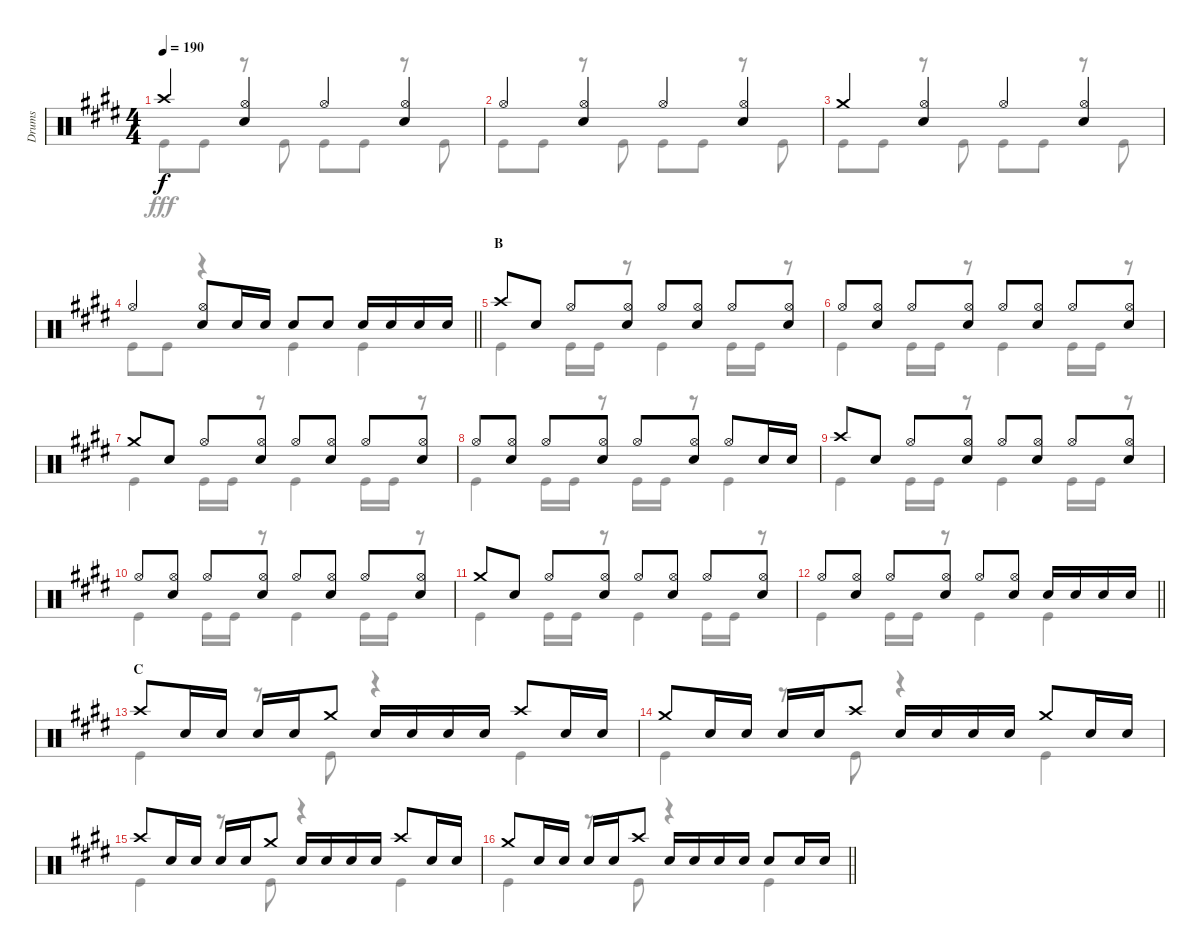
\track ("Drums" "Drums") {instrument percussion}
\staff {score}
\articulation defaults
\voice
\ts (4 4)
\tempo 190
\clef neutral
\ks e "Crash high (hit)".4{dy f}
("Hi-Hat (open)" "Snare (hit) 2").4 "Hi-Hat (open)".4 ("Hi-Hat (open)" "Snare (hit) 2").4 |
"Hi-Hat (open)".4 ("Hi-Hat (open)" "Snare (hit) 2").4 "Hi-Hat (open)".4 ("Hi-Hat (open)" "Snare (hit) 2").4 |
"Crash medium (hit)".4 ("Hi-Hat (open)" "Snare (hit) 2").4 "Hi-Hat (open)".4 ("Hi-Hat (open)" "Snare (hit) 2").4 |
\barLineRight lightlight "Hi-Hat (open)".4
("Hi-Hat (open)" "Snare (hit) 2").8 "Snare (hit) 2".16 "Snare (hit) 2".16 "Snare (hit) 2".8 "Snare (hit) 2".8 "Snare (hit) 2".16 "Snare (hit) 2".16 "Snare (hit) 2".16 "Snare (hit) 2".16 |
\section ("" "B")
"Crash high (hit)".8 "Snare (hit) 2".8 "Hi-Hat (open)".8 ("Hi-Hat (open)" "Snare (hit) 2").8 "Hi-Hat (open)".8 ("Hi-Hat (open)" "Snare (hit) 2").8 "Hi-Hat (open)".8 ("Hi-Hat (open)" "Snare (hit) 2").8 |
"Hi-Hat (open)".8 ("Hi-Hat (open)" "Snare (hit) 2").8 "Hi-Hat (open)".8 ("Hi-Hat (open)" "Snare (hit) 2").8 "Hi-Hat (open)".8 ("Hi-Hat (open)" "Snare (hit) 2").8 "Hi-Hat (open)".8 ("Hi-Hat (open)" "Snare (hit) 2").8 |
"Crash medium (hit)".8 "Snare (hit) 2".8 "Hi-Hat (open)".8 ("Hi-Hat (open)" "Snare (hit) 2").8 "Hi-Hat (open)".8 ("Hi-Hat (open)" "Snare (hit) 2").8 "Hi-Hat (open)".8 ("Hi-Hat (open)" "Snare (hit) 2").8 |
"Hi-Hat (open)".8 ("Hi-Hat (open)" "Snare (hit) 2").8 "Hi-Hat (open)".8 ("Hi-Hat (open)" "Snare (hit) 2").8 "Hi-Hat (open)".8 ("Hi-Hat (open)" "Snare (hit) 2").8 "Hi-Hat (open)".8 "Snare (hit) 2".16 "Snare (hit) 2".16 |
"Crash high (hit)".8 "Snare (hit) 2".8 "Hi-Hat (open)".8 ("Hi-Hat (open)" "Snare (hit) 2").8 "Hi-Hat (open)".8 ("Hi-Hat (open)" "Snare (hit) 2").8 "Hi-Hat (open)".8 ("Hi-Hat (open)" "Snare (hit) 2").8 |
"Hi-Hat (open)".8 ("Hi-Hat (open)" "Snare (hit) 2").8 "Hi-Hat (open)".8 ("Hi-Hat (open)" "Snare (hit) 2").8 "Hi-Hat (open)".8 ("Hi-Hat (open)" "Snare (hit) 2").8 "Hi-Hat (open)".8 ("Hi-Hat (open)" "Snare (hit) 2").8 |
"Crash medium (hit)".8 "Snare (hit) 2".8 "Hi-Hat (open)".8 ("Hi-Hat (open)" "Snare (hit) 2").8 "Hi-Hat (open)".8 ("Hi-Hat (open)" "Snare (hit) 2").8 "Hi-Hat (open)".8 ("Hi-Hat (open)" "Snare (hit) 2").8 |
\barLineRight lightlight "Hi-Hat (open)".8
("Hi-Hat (open)" "Snare (hit) 2").8 "Hi-Hat (open)".8 ("Hi-Hat (open)" "Snare (hit) 2").8 "Hi-Hat (open)".8 ("Hi-Hat (open)" "Snare (hit) 2").8 "Snare (hit) 2".16 "Snare (hit) 2".16 "Snare (hit) 2".16 "Snare (hit) 2".16 |
\section ("" "C")
"Crash high (hit)".8 "Snare (hit) 2".16 "Snare (hit) 2".16 "Snare (hit) 2".16 "Snare (hit) 2".16 "Crash medium (hit)".8 "Snare (hit) 2".16 "Snare (hit) 2".16 "Snare (hit) 2".16 "Snare (hit) 2".16 "Crash high (hit)".8 "Snare (hit) 2".16 "Snare (hit) 2".16 |
"Crash medium (hit)".8 "Snare (hit) 2".16 "Snare (hit) 2".16 "Snare (hit) 2".16 "Snare (hit) 2".16 "Crash high (hit)".8 "Snare (hit) 2".16 "Snare (hit) 2".16 "Snare (hit) 2".16 "Snare (hit) 2".16 "Crash medium (hit)".8 "Snare (hit) 2".16 "Snare (hit) 2".16 |
"Crash high (hit)".8 "Snare (hit) 2".16 "Snare (hit) 2".16 "Snare (hit) 2".16 "Snare (hit) 2".16 "Crash medium (hit)".8 "Snare (hit) 2".16 "Snare (hit) 2".16 "Snare (hit) 2".16 "Snare (hit) 2".16 "Crash high (hit)".8 "Snare (hit) 2".16 "Snare (hit) 2".16 |
\barLineRight lightlight "Crash medium (hit)".8 "Snare (hit) 2".16 "Snare (hit) 2".16 "Snare (hit) 2".16 "Snare (hit) 2".16 "Crash high (hit)".8 "Snare (hit) 2".16 "Snare (hit) 2".16 "Snare (hit) 2".16 "Snare (hit) 2".16 "Snare (hit) 2".8 "Snare (hit) 2".16 "Snare (hit) 2".16
\voice
\clef neutral
\ottava regular
\simile none
\ks e "Kick (hit)".8{dy fff} "Kick (hit)".8
r.8 "Kick (hit)".8 "Kick (hit)".8 "Kick (hit)".8 r.8 "Kick (hit)".8 |
"Kick (hit)".8 "Kick (hit)".8 r.8 "Kick (hit)".8 "Kick (hit)".8 "Kick (hit)".8 r.8 "Kick (hit)".8 |
"Kick (hit)".8 "Kick (hit)".8 r.8 "Kick (hit)".8 "Kick (hit)".8 "Kick (hit)".8 r.8 "Kick (hit)".8 |
\barLineRight lightlight "Kick (hit)".8 "Kick (hit)".8
r.4 "Kick (hit)".4 "Kick (hit)".4 |
"Kick (hit)".4 "Kick (hit)".16 "Kick (hit)".16 r.8 "Kick (hit)".4 "Kick (hit)".16 "Kick (hit)".16 r.8 |
"Kick (hit)".4 "Kick (hit)".16 "Kick (hit)".16 r.8 "Kick (hit)".4 "Kick (hit)".16 "Kick (hit)".16 r.8 |
"Kick (hit)".4 "Kick (hit)".16 "Kick (hit)".16 r.8 "Kick (hit)".4 "Kick (hit)".16 "Kick (hit)".16 r.8 |
"Kick (hit)".4 "Kick (hit)".16 "Kick (hit)".16 r.8 "Kick (hit)".16 "Kick (hit)".16 r.8 "Kick (hit)".4 |
"Kick (hit)".4 "Kick (hit)".16 "Kick (hit)".16 r.8 "Kick (hit)".4 "Kick (hit)".16 "Kick (hit)".16 r.8 |
"Kick (hit)".4 "Kick (hit)".16 "Kick (hit)".16 r.8 "Kick (hit)".4 "Kick (hit)".16 "Kick (hit)".16 r.8 |
"Kick (hit)".4 "Kick (hit)".16 "Kick (hit)".16 r.8 "Kick (hit)".4 "Kick (hit)".16 "Kick (hit)".16 r.8 |
\barLineRight lightlight "Kick (hit)".4 "Kick (hit)".16 "Kick (hit)".16
r.8 "Kick (hit)".4 "Kick (hit)".4 |
"Kick (hit)".4 r.8 "Kick (hit)".8 r.4 "Kick (hit)".4 |
"Kick (hit)".4 r.8 "Kick (hit)".8 r.4 "Kick (hit)".4 |
"Kick (hit)".4 r.8 "Kick (hit)".8 r.4 "Kick (hit)".4 |
\barLineRight lightlight "Kick (hit)".4
r.8 "Kick (hit)".8 r.4 "Kick (hit)".4
